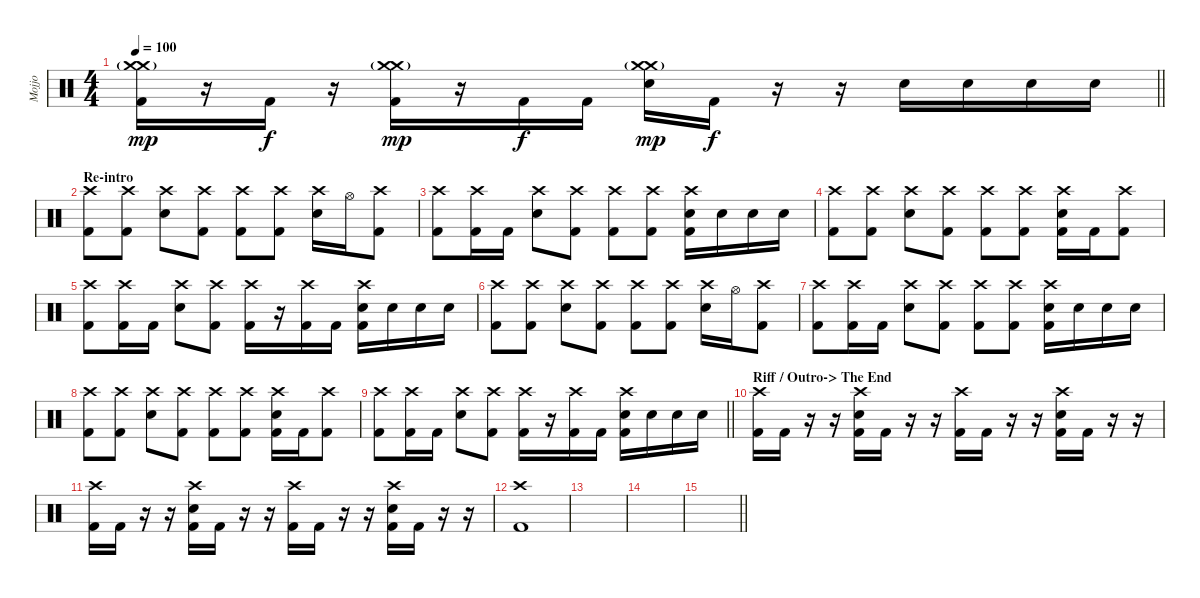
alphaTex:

\track ("Mojjo" "Mojjo") {instrument percussion}
\staff {score}
\articulation defaults
\ts (4 4)
\tempo 100
\clef neutral
\barLineRight lightlight
\ks c
("Crash medium (hit)"{g} "Crash medium (hit)" "Kick (hit) 2").16{dy mp} r.16 "Kick (hit) 2".16{dy f} r.16 ("Crash medium (hit)"{g} "Crash medium (hit)" "Kick (hit) 2").16{dy mp} r.16 "Kick (hit) 2".16{dy f} "Kick (hit) 2".16 ("Crash medium (hit)"{g} "Crash medium (hit)" "Electric Snare (hit)").16{dy mp} "Kick (hit) 2".16{dy f} r.16 r.16 "Electric Snare (hit)".16 "Electric Snare (hit)".16 "Electric Snare (hit)".16 "Electric Snare (hit)".16 |
\section ("" "Re-intro")
("Crash high (hit)" "Kick (hit) 2").8 ("Crash high (hit)" "Kick (hit) 2").8 ("Crash high (hit)" "Electric Snare (hit)").8 ("Crash high (hit)" "Kick (hit) 2").8 ("Crash high (hit)" "Kick (hit) 2").8 ("Crash high (hit)" "Kick (hit) 2").8 ("Crash high (hit)" "Electric Snare (hit)").16 "Hi-Hat (open)".16 ("Crash high (hit)" "Kick (hit) 2").8 |
("Crash high (hit)" "Kick (hit) 2").8 ("Crash high (hit)" "Kick (hit) 2").16 "Kick (hit) 2".16 ("Crash high (hit)" "Electric Snare (hit)").8 ("Crash high (hit)" "Kick (hit) 2").8 ("Crash high (hit)" "Kick (hit) 2").8 ("Crash high (hit)" "Kick (hit) 2").8 ("Crash high (hit)" "Electric Snare (hit)" "Kick (hit) 2").16 "Electric Snare (hit)".16 "Electric Snare (hit)".16 "Electric Snare (hit)".16 |
("Crash high (hit)" "Kick (hit) 2").8 ("Crash high (hit)" "Kick (hit) 2").8 ("Crash high (hit)" "Electric Snare (hit)").8 ("Crash high (hit)" "Kick (hit) 2").8 ("Crash high (hit)" "Kick (hit) 2").8 ("Crash high (hit)" "Kick (hit) 2").8 ("Crash high (hit)" "Electric Snare (hit)" "Kick (hit) 2").16 "Kick (hit) 2".16 ("Crash high (hit)" "Kick (hit) 2").8 |
("Crash high (hit)" "Kick (hit) 2").8 ("Crash high (hit)" "Kick (hit) 2").16 "Kick (hit) 2".16 ("Crash high (hit)" "Electric Snare (hit)").8 ("Crash high (hit)" "Kick (hit) 2").8 ("Crash high (hit)" "Kick (hit) 2").16 r.16 ("Crash high (hit)" "Kick (hit) 2").16 "Kick (hit) 2".16 ("Crash high (hit)" "Electric Snare (hit)" "Kick (hit) 2").16 "Electric Snare (hit)".16 "Electric Snare (hit)".16 "Electric Snare (hit)".16 |
("Crash high (hit)" "Kick (hit) 2").8 ("Crash high (hit)" "Kick (hit) 2").8 ("Crash high (hit)" "Electric Snare (hit)").8 ("Crash high (hit)" "Kick (hit) 2").8 ("Crash high (hit)" "Kick (hit) 2").8 ("Crash high (hit)" "Kick (hit) 2").8 ("Crash high (hit)" "Electric Snare (hit)").16 "Hi-Hat (open)".16 ("Crash high (hit)" "Kick (hit) 2").8 |
("Crash high (hit)" "Kick (hit) 2").8 ("Crash high (hit)" "Kick (hit) 2").16 "Kick (hit) 2".16 ("Crash high (hit)" "Electric Snare (hit)").8 ("Crash high (hit)" "Kick (hit) 2").8 ("Crash high (hit)" "Kick (hit) 2").8 ("Crash high (hit)" "Kick (hit) 2").8 ("Crash high (hit)" "Electric Snare (hit)" "Kick (hit) 2").16 "Electric Snare (hit)".16 "Electric Snare (hit)".16 "Electric Snare (hit)".16 |
("Crash high (hit)" "Kick (hit) 2").8 ("Crash high (hit)" "Kick (hit) 2").8 ("Crash high (hit)" "Electric Snare (hit)").8 ("Crash high (hit)" "Kick (hit) 2").8 ("Crash high (hit)" "Kick (hit) 2").8 ("Crash high (hit)" "Kick (hit) 2").8 ("Crash high (hit)" "Electric Snare (hit)" "Kick (hit) 2").16 "Kick (hit) 2".16 ("Crash high (hit)" "Kick (hit) 2").8 |
\barLineRight lightlight
("Crash high (hit)" "Kick (hit) 2").8 ("Crash high (hit)" "Kick (hit) 2").16 "Kick (hit) 2".16 ("Crash high (hit)" "Electric Snare (hit)").8 ("Crash high (hit)" "Kick (hit) 2").8 ("Crash high (hit)" "Kick (hit) 2").16 r.16 ("Crash high (hit)" "Kick (hit) 2").16 "Kick (hit) 2".16 ("Crash high (hit)" "Electric Snare (hit)" "Kick (hit) 2").16 "Electric Snare (hit)".16 "Electric Snare (hit)".16 "Electric Snare (hit)".16 |
\section ("" "Riff / Outro-> The End")
("Crash high (hit)" "Kick (hit) 2").16 "Kick (hit) 2".16 r.16 r.16 ("Crash high (hit)" "Electric Snare (hit)" "Kick (hit) 2").16 "Kick (hit) 2".16 r.16 r.16 ("Crash high (hit)" "Kick (hit) 2").16 "Kick (hit) 2".16 r.16 r.16 ("Crash high (hit)" "Electric Snare (hit)" "Kick (hit) 2").16 "Kick (hit) 2".16 r.16 r.16 |
("Crash high (hit)" "Kick (hit) 2").16 "Kick (hit) 2".16 r.16 r.16 ("Crash high (hit)" "Electric Snare (hit)" "Kick (hit) 2").16 "Kick (hit) 2".16 r.16 r.16 ("Crash high (hit)" "Kick (hit) 2").16 "Kick (hit) 2".16 r.16 r.16 ("Crash high (hit)" "Electric Snare (hit)" "Kick (hit) 2").16 "Kick (hit) 2".16 r.16 r.16 |
("Crash high (hit)" "Kick (hit) 2").1 |
|
|
\barLineRight lightlight
